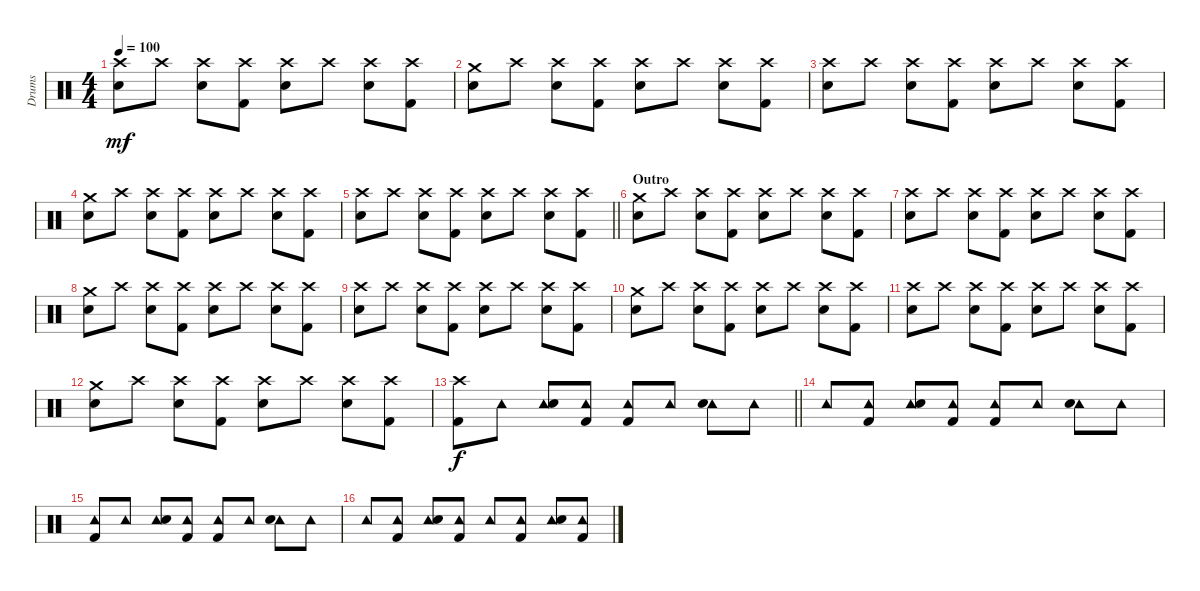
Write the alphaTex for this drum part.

\track ("Drums" "Drums") {instrument percussion}
\staff {score}
\articulation defaults
\ts (4 4)
\tempo 100
\clef neutral
\ks c
("Crash high (hit)" "Snare (hit) 2").8{dy mf} "Crash high (hit)".8 ("Crash high (hit)" "Snare (hit) 2").8 ("Crash high (hit)" "Kick (hit) 2").8 ("Crash high (hit)" "Snare (hit) 2").8 "Crash high (hit)".8 ("Crash high (hit)" "Snare (hit) 2").8 ("Crash high (hit)" "Kick (hit) 2").8 |
("Crash medium (hit)" "Snare (hit) 2").8 "Crash high (hit)".8 ("Crash high (hit)" "Snare (hit) 2").8 ("Crash high (hit)" "Kick (hit) 2").8 ("Crash high (hit)" "Snare (hit) 2").8 "Crash high (hit)".8 ("Crash high (hit)" "Snare (hit) 2").8 ("Crash high (hit)" "Kick (hit) 2").8 |
("Crash high (hit)" "Snare (hit) 2").8 "Crash high (hit)".8 ("Crash high (hit)" "Snare (hit) 2").8 ("Crash high (hit)" "Kick (hit) 2").8 ("Crash high (hit)" "Snare (hit) 2").8 "Crash high (hit)".8 ("Crash high (hit)" "Snare (hit) 2").8 ("Crash high (hit)" "Kick (hit) 2").8 |
("Crash medium (hit)" "Snare (hit) 2").8 "Crash high (hit)".8 ("Crash high (hit)" "Snare (hit) 2").8 ("Crash high (hit)" "Kick (hit) 2").8 ("Crash high (hit)" "Snare (hit) 2").8 "Crash high (hit)".8 ("Crash high (hit)" "Snare (hit) 2").8 ("Crash high (hit)" "Kick (hit) 2").8 |
\barLineRight lightlight
("Crash high (hit)" "Snare (hit) 2").8 "Crash high (hit)".8 ("Crash high (hit)" "Snare (hit) 2").8 ("Crash high (hit)" "Kick (hit) 2").8 ("Crash high (hit)" "Snare (hit) 2").8 "Crash high (hit)".8 ("Crash high (hit)" "Snare (hit) 2").8 ("Crash high (hit)" "Kick (hit) 2").8 |
\section ("" "Outro")
("Crash medium (hit)" "Snare (hit) 2").8 "Crash high (hit)".8 ("Crash high (hit)" "Snare (hit) 2").8 ("Crash high (hit)" "Kick (hit) 2").8 ("Crash high (hit)" "Snare (hit) 2").8 "Crash high (hit)".8 ("Crash high (hit)" "Snare (hit) 2").8 ("Crash high (hit)" "Kick (hit) 2").8 |
("Crash high (hit)" "Snare (hit) 2").8 "Crash high (hit)".8 ("Crash high (hit)" "Snare (hit) 2").8 ("Crash high (hit)" "Kick (hit) 2").8 ("Crash high (hit)" "Snare (hit) 2").8 "Crash high (hit)".8 ("Crash high (hit)" "Snare (hit) 2").8 ("Crash high (hit)" "Kick (hit) 2").8 |
("Crash medium (hit)" "Snare (hit) 2").8 "Crash high (hit)".8 ("Crash high (hit)" "Snare (hit) 2").8 ("Crash high (hit)" "Kick (hit) 2").8 ("Crash high (hit)" "Snare (hit) 2").8 "Crash high (hit)".8 ("Crash high (hit)" "Snare (hit) 2").8 ("Crash high (hit)" "Kick (hit) 2").8 |
("Crash high (hit)" "Snare (hit) 2").8 "Crash high (hit)".8 ("Crash high (hit)" "Snare (hit) 2").8 ("Crash high (hit)" "Kick (hit) 2").8 ("Crash high (hit)" "Snare (hit) 2").8 "Crash high (hit)".8 ("Crash high (hit)" "Snare (hit) 2").8 ("Crash high (hit)" "Kick (hit) 2").8 |
("Crash medium (hit)" "Snare (hit) 2").8 "Crash high (hit)".8 ("Crash high (hit)" "Snare (hit) 2").8 ("Crash high (hit)" "Kick (hit) 2").8 ("Crash high (hit)" "Snare (hit) 2").8 "Crash high (hit)".8 ("Crash high (hit)" "Snare (hit) 2").8 ("Crash high (hit)" "Kick (hit) 2").8 |
("Crash high (hit)" "Snare (hit) 2").8 "Crash high (hit)".8 ("Crash high (hit)" "Snare (hit) 2").8 ("Crash high (hit)" "Kick (hit) 2").8 ("Crash high (hit)" "Snare (hit) 2").8 "Crash high (hit)".8 ("Crash high (hit)" "Snare (hit) 2").8 ("Crash high (hit)" "Kick (hit) 2").8 |
("Crash medium (hit)" "Snare (hit) 2").8 "Crash high (hit)".8 ("Crash high (hit)" "Snare (hit) 2").8 ("Crash high (hit)" "Kick (hit) 2").8 ("Crash high (hit)" "Snare (hit) 2").8 "Crash high (hit)".8 ("Crash high (hit)" "Snare (hit) 2").8 ("Crash high (hit)" "Kick (hit) 2").8 |
\barLineRight lightlight
("Crash high (hit)" "Kick (hit) 2").8{dy f} "Tambourine (hit)".8 ("Tambourine (hit)" "Snare (hit) 2").8 ("Tambourine (hit)" "Kick (hit) 2").8 ("Tambourine (hit)" "Kick (hit) 2").8 "Tambourine (hit)".8 ("Tambourine (hit)" "Snare (hit) 2").8 "Tambourine (hit)".8 |
"Tambourine (hit)".8 ("Tambourine (hit)" "Kick (hit) 2").8 ("Tambourine (hit)" "Snare (hit) 2").8 ("Tambourine (hit)" "Kick (hit) 2").8 ("Tambourine (hit)" "Kick (hit) 2").8 "Tambourine (hit)".8 ("Tambourine (hit)" "Snare (hit) 2").8 "Tambourine (hit)".8 |
("Tambourine (hit)" "Kick (hit) 2").8 "Tambourine (hit)".8 ("Tambourine (hit)" "Snare (hit) 2").8 ("Tambourine (hit)" "Kick (hit) 2").8 ("Tambourine (hit)" "Kick (hit) 2").8 "Tambourine (hit)".8 ("Tambourine (hit)" "Snare (hit) 2").8 "Tambourine (hit)".8 |
"Tambourine (hit)".8 ("Tambourine (hit)" "Kick (hit) 2").8 ("Tambourine (hit)" "Snare (hit) 2").8 ("Tambourine (hit)" "Kick (hit) 2").8 "Tambourine (hit)".8 ("Tambourine (hit)" "Kick (hit) 2").8 ("Tambourine (hit)" "Snare (hit) 2").8 ("Tambourine (hit)" "Kick (hit) 2").8
